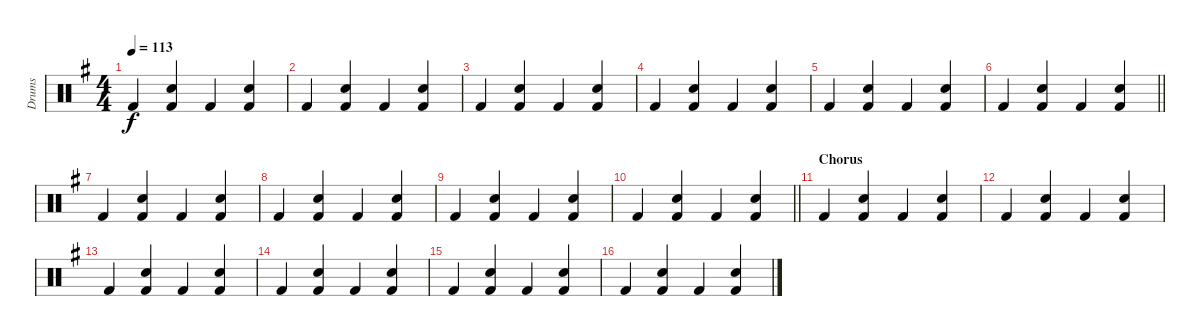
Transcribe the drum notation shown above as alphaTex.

\track ("Drums" "Drums") {instrument percussion}
\staff {score}
\articulation defaults
\ts (4 4)
\tempo 113
\clef neutral
\ks g "Kick (hit) 2".4{dy f}
("Snare (hit) 2" "Kick (hit) 2").4 "Kick (hit) 2".4 ("Snare (hit) 2" "Kick (hit) 2").4 |
"Kick (hit) 2".4 ("Snare (hit) 2" "Kick (hit) 2").4 "Kick (hit) 2".4 ("Snare (hit) 2" "Kick (hit) 2").4 |
"Kick (hit) 2".4 ("Snare (hit) 2" "Kick (hit) 2").4 "Kick (hit) 2".4 ("Snare (hit) 2" "Kick (hit) 2").4 |
"Kick (hit) 2".4 ("Snare (hit) 2" "Kick (hit) 2").4 "Kick (hit) 2".4 ("Snare (hit) 2" "Kick (hit) 2").4 |
"Kick (hit) 2".4 ("Snare (hit) 2" "Kick (hit) 2").4 "Kick (hit) 2".4 ("Snare (hit) 2" "Kick (hit) 2").4 |
\barLineRight lightlight "Kick (hit) 2".4
("Snare (hit) 2" "Kick (hit) 2").4 "Kick (hit) 2".4 ("Snare (hit) 2" "Kick (hit) 2").4 |
"Kick (hit) 2".4 ("Snare (hit) 2" "Kick (hit) 2").4 "Kick (hit) 2".4 ("Snare (hit) 2" "Kick (hit) 2").4 |
"Kick (hit) 2".4 ("Snare (hit) 2" "Kick (hit) 2").4 "Kick (hit) 2".4 ("Snare (hit) 2" "Kick (hit) 2").4 |
"Kick (hit) 2".4 ("Snare (hit) 2" "Kick (hit) 2").4 "Kick (hit) 2".4 ("Snare (hit) 2" "Kick (hit) 2").4 |
\barLineRight lightlight "Kick (hit) 2".4
("Snare (hit) 2" "Kick (hit) 2").4 "Kick (hit) 2".4 ("Snare (hit) 2" "Kick (hit) 2").4 |
\section ("" "Chorus")
"Kick (hit) 2".4 ("Snare (hit) 2" "Kick (hit) 2").4 "Kick (hit) 2".4 ("Snare (hit) 2" "Kick (hit) 2").4 |
"Kick (hit) 2".4 ("Snare (hit) 2" "Kick (hit) 2").4 "Kick (hit) 2".4 ("Snare (hit) 2" "Kick (hit) 2").4 |
"Kick (hit) 2".4 ("Snare (hit) 2" "Kick (hit) 2").4 "Kick (hit) 2".4 ("Snare (hit) 2" "Kick (hit) 2").4 |
"Kick (hit) 2".4 ("Snare (hit) 2" "Kick (hit) 2").4 "Kick (hit) 2".4 ("Snare (hit) 2" "Kick (hit) 2").4 |
"Kick (hit) 2".4 ("Snare (hit) 2" "Kick (hit) 2").4 "Kick (hit) 2".4 ("Snare (hit) 2" "Kick (hit) 2").4 |
"Kick (hit) 2".4 ("Snare (hit) 2" "Kick (hit) 2").4 "Kick (hit) 2".4 ("Snare (hit) 2" "Kick (hit) 2").4
